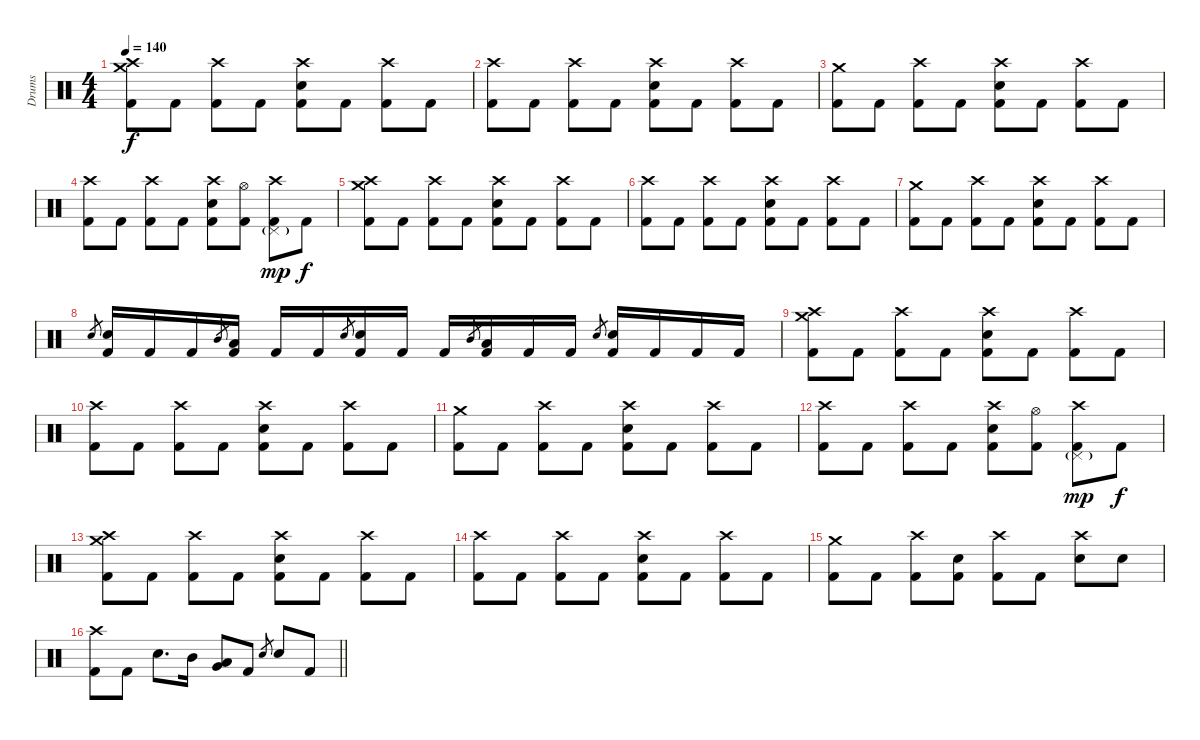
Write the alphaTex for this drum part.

\track ("Drums" "Drums") {instrument percussion}
\staff {score}
\articulation defaults
\ts (4 4)
\tempo 140
\clef neutral
\ks c
("Crash medium (hit)" "Crash high (hit)" "Kick (hit) 2").8{dy f} "Kick (hit) 2".8 ("Crash high (hit)" "Kick (hit) 2").8 "Kick (hit) 2".8 ("Crash high (hit)" "Electric Snare (hit)" "Kick (hit) 2").8 "Kick (hit) 2".8 ("Crash high (hit)" "Kick (hit) 2").8 "Kick (hit) 2".8 |
("Crash high (hit)" "Kick (hit) 2").8 "Kick (hit) 2".8 ("Crash high (hit)" "Kick (hit) 2").8 "Kick (hit) 2".8 ("Crash high (hit)" "Electric Snare (hit)" "Kick (hit) 2").8 "Kick (hit) 2".8 ("Crash high (hit)" "Kick (hit) 2").8 "Kick (hit) 2".8 |
("Crash medium (hit)" "Kick (hit) 2").8 "Kick (hit) 2".8 ("Crash high (hit)" "Kick (hit) 2").8 "Kick (hit) 2".8 ("Crash high (hit)" "Electric Snare (hit)" "Kick (hit) 2").8 "Kick (hit) 2".8 ("Crash high (hit)" "Kick (hit) 2").8 "Kick (hit) 2".8 |
("Crash high (hit)" "Kick (hit) 2").8 "Kick (hit) 2".8 ("Crash high (hit)" "Kick (hit) 2").8 "Kick (hit) 2".8 ("Crash high (hit)" "Electric Snare (hit)" "Kick (hit) 2").8 ("Hi-Hat (open)" "Kick (hit) 2").8 ("Crash high (hit)" "Pedal Hi-Hat (hit)"{g} "Kick (hit) 2").8{dy mp} "Kick (hit) 2".8{dy f} |
("Crash medium (hit)" "Crash high (hit)" "Kick (hit) 2").8 "Kick (hit) 2".8 ("Crash high (hit)" "Kick (hit) 2").8 "Kick (hit) 2".8 ("Crash high (hit)" "Electric Snare (hit)" "Kick (hit) 2").8 "Kick (hit) 2".8 ("Crash high (hit)" "Kick (hit) 2").8 "Kick (hit) 2".8 |
("Crash high (hit)" "Kick (hit) 2").8 "Kick (hit) 2".8 ("Crash high (hit)" "Kick (hit) 2").8 "Kick (hit) 2".8 ("Crash high (hit)" "Electric Snare (hit)" "Kick (hit) 2").8 "Kick (hit) 2".8 ("Crash high (hit)" "Kick (hit) 2").8 "Kick (hit) 2".8 |
("Crash medium (hit)" "Kick (hit) 2").8 "Kick (hit) 2".8 ("Crash high (hit)" "Kick (hit) 2").8 "Kick (hit) 2".8 ("Crash high (hit)" "Electric Snare (hit)" "Kick (hit) 2").8 "Kick (hit) 2".8 ("Crash high (hit)" "Kick (hit) 2").8 "Kick (hit) 2".8 |
"Electric Snare (hit)".8{gr} ("Electric Snare (hit)" "Kick (hit) 2").16 "Kick (hit) 2".16 "Kick (hit) 2".16 "Mid Tom (hit)".8{gr} ("Low Tom (hit)" "Kick (hit) 2").16 "Kick (hit) 2".16 "Kick (hit) 2".16 "Electric Snare (hit)".8{gr} ("Electric Snare (hit)" "Kick (hit) 2").16 "Kick (hit) 2".16 "Kick (hit) 2".16 "Mid Tom (hit)".8{gr} ("Low Tom (hit)" "Kick (hit) 2").16 "Kick (hit) 2".16 "Kick (hit) 2".16 "Electric Snare (hit)".8{gr} ("Electric Snare (hit)" "Kick (hit) 2").16 "Kick (hit) 2".16 "Kick (hit) 2".16 "Kick (hit) 2".16 |
("Crash medium (hit)" "Crash high (hit)" "Kick (hit) 2").8 "Kick (hit) 2".8 ("Crash high (hit)" "Kick (hit) 2").8 "Kick (hit) 2".8 ("Crash high (hit)" "Electric Snare (hit)" "Kick (hit) 2").8 "Kick (hit) 2".8 ("Crash high (hit)" "Kick (hit) 2").8 "Kick (hit) 2".8 |
("Crash high (hit)" "Kick (hit) 2").8 "Kick (hit) 2".8 ("Crash high (hit)" "Kick (hit) 2").8 "Kick (hit) 2".8 ("Crash high (hit)" "Electric Snare (hit)" "Kick (hit) 2").8 "Kick (hit) 2".8 ("Crash high (hit)" "Kick (hit) 2").8 "Kick (hit) 2".8 |
("Crash medium (hit)" "Kick (hit) 2").8 "Kick (hit) 2".8 ("Crash high (hit)" "Kick (hit) 2").8 "Kick (hit) 2".8 ("Crash high (hit)" "Electric Snare (hit)" "Kick (hit) 2").8 "Kick (hit) 2".8 ("Crash high (hit)" "Kick (hit) 2").8 "Kick (hit) 2".8 |
("Crash high (hit)" "Kick (hit) 2").8 "Kick (hit) 2".8 ("Crash high (hit)" "Kick (hit) 2").8 "Kick (hit) 2".8 ("Crash high (hit)" "Electric Snare (hit)" "Kick (hit) 2").8 ("Hi-Hat (open)" "Kick (hit) 2").8 ("Crash high (hit)" "Pedal Hi-Hat (hit)"{g} "Kick (hit) 2").8{dy mp} "Kick (hit) 2".8{dy f} |
("Crash medium (hit)" "Crash high (hit)" "Kick (hit) 2").8 "Kick (hit) 2".8 ("Crash high (hit)" "Kick (hit) 2").8 "Kick (hit) 2".8 ("Crash high (hit)" "Electric Snare (hit)" "Kick (hit) 2").8 "Kick (hit) 2".8 ("Crash high (hit)" "Kick (hit) 2").8 "Kick (hit) 2".8 |
("Crash high (hit)" "Kick (hit) 2").8 "Kick (hit) 2".8 ("Crash high (hit)" "Kick (hit) 2").8 "Kick (hit) 2".8 ("Crash high (hit)" "Electric Snare (hit)" "Kick (hit) 2").8 "Kick (hit) 2".8 ("Crash high (hit)" "Kick (hit) 2").8 "Kick (hit) 2".8 |
("Crash medium (hit)" "Kick (hit) 2").8 "Kick (hit) 2".8 ("Crash high (hit)" "Kick (hit) 2").8 ("Electric Snare (hit)" "Kick (hit) 2").8 ("Crash high (hit)" "Kick (hit) 2").8 "Kick (hit) 2".8 ("Crash high (hit)" "Electric Snare (hit)").8 "Electric Snare (hit)".8 |
\barLineRight lightlight
("Crash high (hit)" "Kick (hit) 2").8 "Kick (hit) 2".8 "Electric Snare (hit)".8{d} "Mid Tom (hit)".16 ("Low Tom (hit)" "Very Low Tom (hit)").8{bu 120} "Kick (hit) 2".8 "Electric Snare (hit)".8{gr} "Electric Snare (hit)".8 "Kick (hit) 2".8
